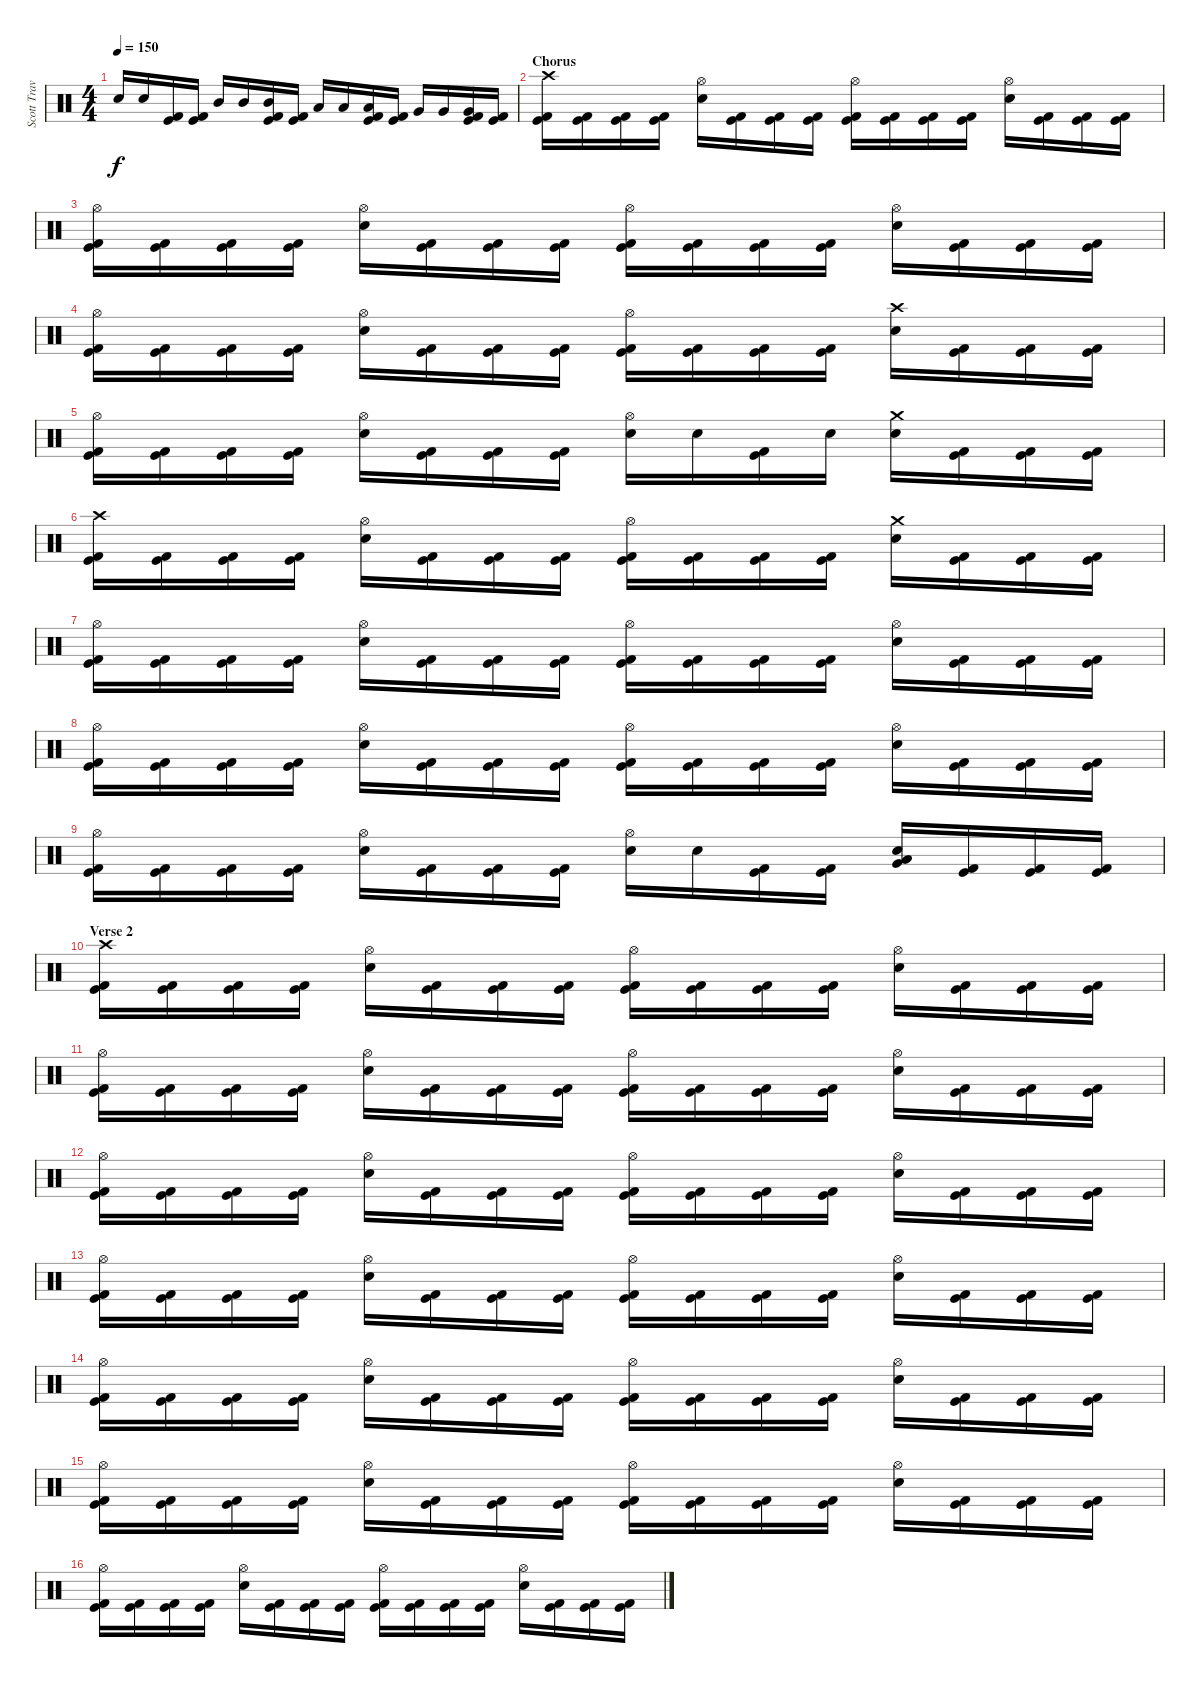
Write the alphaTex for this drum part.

\track ("Scott Travis" "Scott Trav") {instrument percussion}
\staff {score}
\articulation defaults
\ts (4 4)
\tempo 150
\clef neutral
\ks c "Electric Snare (hit)".16{dy f} "Electric Snare (hit)".16
("Kick (hit)" "Kick (hit) 2").16 ("Kick (hit)" "Kick (hit) 2").16 "Mid Tom (hit)".16 "Mid Tom (hit)".16 ("Mid Tom (hit)" "Kick (hit)" "Kick (hit) 2").16 ("Kick (hit)" "Kick (hit) 2").16 "Low Tom (hit)".16 "Low Tom (hit)".16 ("Low Tom (hit)" "Kick (hit)" "Kick (hit) 2").16 ("Kick (hit)" "Kick (hit) 2").16 "Very Low Tom (hit)".16 "Very Low Tom (hit)".16 ("Very Low Tom (hit)" "Kick (hit)" "Kick (hit) 2").16 ("Kick (hit)" "Kick (hit) 2").16 |
\section ("" "Chorus")
("Crash high (hit)" "Kick (hit)" "Kick (hit) 2").16 ("Kick (hit)" "Kick (hit) 2").16 ("Kick (hit)" "Kick (hit) 2").16 ("Kick (hit)" "Kick (hit) 2").16 ("Hi-Hat (open)" "Electric Snare (hit)").16 ("Kick (hit)" "Kick (hit) 2").16 ("Kick (hit)" "Kick (hit) 2").16 ("Kick (hit)" "Kick (hit) 2").16 ("Hi-Hat (open)" "Kick (hit)" "Kick (hit) 2").16 ("Kick (hit)" "Kick (hit) 2").16 ("Kick (hit)" "Kick (hit) 2").16 ("Kick (hit)" "Kick (hit) 2").16 ("Hi-Hat (open)" "Electric Snare (hit)").16 ("Kick (hit)" "Kick (hit) 2").16 ("Kick (hit)" "Kick (hit) 2").16 ("Kick (hit)" "Kick (hit) 2").16 |
("Hi-Hat (open)" "Kick (hit)" "Kick (hit) 2").16 ("Kick (hit)" "Kick (hit) 2").16 ("Kick (hit)" "Kick (hit) 2").16 ("Kick (hit)" "Kick (hit) 2").16 ("Hi-Hat (open)" "Electric Snare (hit)").16 ("Kick (hit)" "Kick (hit) 2").16 ("Kick (hit)" "Kick (hit) 2").16 ("Kick (hit)" "Kick (hit) 2").16 ("Hi-Hat (open)" "Kick (hit)" "Kick (hit) 2").16 ("Kick (hit)" "Kick (hit) 2").16 ("Kick (hit)" "Kick (hit) 2").16 ("Kick (hit)" "Kick (hit) 2").16 ("Hi-Hat (open)" "Electric Snare (hit)").16 ("Kick (hit)" "Kick (hit) 2").16 ("Kick (hit)" "Kick (hit) 2").16 ("Kick (hit)" "Kick (hit) 2").16 |
("Hi-Hat (open)" "Kick (hit)" "Kick (hit) 2").16 ("Kick (hit)" "Kick (hit) 2").16 ("Kick (hit)" "Kick (hit) 2").16 ("Kick (hit)" "Kick (hit) 2").16 ("Hi-Hat (open)" "Electric Snare (hit)").16 ("Kick (hit)" "Kick (hit) 2").16 ("Kick (hit)" "Kick (hit) 2").16 ("Kick (hit)" "Kick (hit) 2").16 ("Hi-Hat (open)" "Kick (hit)" "Kick (hit) 2").16 ("Kick (hit)" "Kick (hit) 2").16 ("Kick (hit)" "Kick (hit) 2").16 ("Kick (hit)" "Kick (hit) 2").16 ("Crash high (hit)" "Electric Snare (hit)").16 ("Kick (hit)" "Kick (hit) 2").16 ("Kick (hit)" "Kick (hit) 2").16 ("Kick (hit)" "Kick (hit) 2").16 |
("Hi-Hat (open)" "Kick (hit)" "Kick (hit) 2").16 ("Kick (hit)" "Kick (hit) 2").16 ("Kick (hit)" "Kick (hit) 2").16 ("Kick (hit)" "Kick (hit) 2").16 ("Hi-Hat (open)" "Electric Snare (hit)").16 ("Kick (hit)" "Kick (hit) 2").16 ("Kick (hit)" "Kick (hit) 2").16 ("Kick (hit)" "Kick (hit) 2").16 ("Hi-Hat (open)" "Electric Snare (hit)").16 "Electric Snare (hit)".16 ("Kick (hit)" "Kick (hit) 2").16 "Electric Snare (hit)".16 ("Crash medium (hit)" "Electric Snare (hit)").16 ("Kick (hit)" "Kick (hit) 2").16 ("Kick (hit)" "Kick (hit) 2").16 ("Kick (hit)" "Kick (hit) 2").16 |
("Crash high (hit)" "Kick (hit)" "Kick (hit) 2").16 ("Kick (hit)" "Kick (hit) 2").16 ("Kick (hit)" "Kick (hit) 2").16 ("Kick (hit)" "Kick (hit) 2").16 ("Hi-Hat (open)" "Electric Snare (hit)").16 ("Kick (hit)" "Kick (hit) 2").16 ("Kick (hit)" "Kick (hit) 2").16 ("Kick (hit)" "Kick (hit) 2").16 ("Hi-Hat (open)" "Kick (hit)" "Kick (hit) 2").16 ("Kick (hit)" "Kick (hit) 2").16 ("Kick (hit)" "Kick (hit) 2").16 ("Kick (hit)" "Kick (hit) 2").16 ("Crash medium (hit)" "Electric Snare (hit)").16 ("Kick (hit)" "Kick (hit) 2").16 ("Kick (hit)" "Kick (hit) 2").16 ("Kick (hit)" "Kick (hit) 2").16 |
("Hi-Hat (open)" "Kick (hit)" "Kick (hit) 2").16 ("Kick (hit)" "Kick (hit) 2").16 ("Kick (hit)" "Kick (hit) 2").16 ("Kick (hit)" "Kick (hit) 2").16 ("Hi-Hat (open)" "Electric Snare (hit)").16 ("Kick (hit)" "Kick (hit) 2").16 ("Kick (hit)" "Kick (hit) 2").16 ("Kick (hit)" "Kick (hit) 2").16 ("Hi-Hat (open)" "Kick (hit)" "Kick (hit) 2").16 ("Kick (hit)" "Kick (hit) 2").16 ("Kick (hit)" "Kick (hit) 2").16 ("Kick (hit)" "Kick (hit) 2").16 ("Hi-Hat (open)" "Electric Snare (hit)").16 ("Kick (hit)" "Kick (hit) 2").16 ("Kick (hit)" "Kick (hit) 2").16 ("Kick (hit)" "Kick (hit) 2").16 |
("Hi-Hat (open)" "Kick (hit)" "Kick (hit) 2").16 ("Kick (hit)" "Kick (hit) 2").16 ("Kick (hit)" "Kick (hit) 2").16 ("Kick (hit)" "Kick (hit) 2").16 ("Hi-Hat (open)" "Electric Snare (hit)").16 ("Kick (hit)" "Kick (hit) 2").16 ("Kick (hit)" "Kick (hit) 2").16 ("Kick (hit)" "Kick (hit) 2").16 ("Hi-Hat (open)" "Kick (hit)" "Kick (hit) 2").16 ("Kick (hit)" "Kick (hit) 2").16 ("Kick (hit)" "Kick (hit) 2").16 ("Kick (hit)" "Kick (hit) 2").16 ("Hi-Hat (open)" "Electric Snare (hit)").16 ("Kick (hit)" "Kick (hit) 2").16 ("Kick (hit)" "Kick (hit) 2").16 ("Kick (hit)" "Kick (hit) 2").16 |
("Hi-Hat (open)" "Kick (hit)" "Kick (hit) 2").16 ("Kick (hit)" "Kick (hit) 2").16 ("Kick (hit)" "Kick (hit) 2").16 ("Kick (hit)" "Kick (hit) 2").16 ("Hi-Hat (open)" "Electric Snare (hit)").16 ("Kick (hit)" "Kick (hit) 2").16 ("Kick (hit)" "Kick (hit) 2").16 ("Kick (hit)" "Kick (hit) 2").16 ("Hi-Hat (open)" "Electric Snare (hit)").16 "Electric Snare (hit)".16 ("Kick (hit)" "Kick (hit) 2").16 ("Kick (hit)" "Kick (hit) 2").16 ("Low Tom (hit)" "Very Low Tom (hit)" "Electric Snare (hit)").16 ("Kick (hit)" "Kick (hit) 2").16 ("Kick (hit)" "Kick (hit) 2").16 ("Kick (hit)" "Kick (hit) 2").16 |
\section ("" "Verse 2")
("Crash high (hit)" "Kick (hit)" "Kick (hit) 2").16 ("Kick (hit)" "Kick (hit) 2").16 ("Kick (hit)" "Kick (hit) 2").16 ("Kick (hit)" "Kick (hit) 2").16 ("Hi-Hat (open)" "Electric Snare (hit)").16 ("Kick (hit)" "Kick (hit) 2").16 ("Kick (hit)" "Kick (hit) 2").16 ("Kick (hit)" "Kick (hit) 2").16 ("Hi-Hat (open)" "Kick (hit)" "Kick (hit) 2").16 ("Kick (hit)" "Kick (hit) 2").16 ("Kick (hit)" "Kick (hit) 2").16 ("Kick (hit)" "Kick (hit) 2").16 ("Hi-Hat (open)" "Electric Snare (hit)").16 ("Kick (hit)" "Kick (hit) 2").16 ("Kick (hit)" "Kick (hit) 2").16 ("Kick (hit)" "Kick (hit) 2").16 |
("Hi-Hat (open)" "Kick (hit)" "Kick (hit) 2").16 ("Kick (hit)" "Kick (hit) 2").16 ("Kick (hit)" "Kick (hit) 2").16 ("Kick (hit)" "Kick (hit) 2").16 ("Hi-Hat (open)" "Electric Snare (hit)").16 ("Kick (hit)" "Kick (hit) 2").16 ("Kick (hit)" "Kick (hit) 2").16 ("Kick (hit)" "Kick (hit) 2").16 ("Hi-Hat (open)" "Kick (hit)" "Kick (hit) 2").16 ("Kick (hit)" "Kick (hit) 2").16 ("Kick (hit)" "Kick (hit) 2").16 ("Kick (hit)" "Kick (hit) 2").16 ("Hi-Hat (open)" "Electric Snare (hit)").16 ("Kick (hit)" "Kick (hit) 2").16 ("Kick (hit)" "Kick (hit) 2").16 ("Kick (hit)" "Kick (hit) 2").16 |
("Hi-Hat (open)" "Kick (hit)" "Kick (hit) 2").16 ("Kick (hit)" "Kick (hit) 2").16 ("Kick (hit)" "Kick (hit) 2").16 ("Kick (hit)" "Kick (hit) 2").16 ("Hi-Hat (open)" "Electric Snare (hit)").16 ("Kick (hit)" "Kick (hit) 2").16 ("Kick (hit)" "Kick (hit) 2").16 ("Kick (hit)" "Kick (hit) 2").16 ("Hi-Hat (open)" "Kick (hit)" "Kick (hit) 2").16 ("Kick (hit)" "Kick (hit) 2").16 ("Kick (hit)" "Kick (hit) 2").16 ("Kick (hit)" "Kick (hit) 2").16 ("Hi-Hat (open)" "Electric Snare (hit)").16 ("Kick (hit)" "Kick (hit) 2").16 ("Kick (hit)" "Kick (hit) 2").16 ("Kick (hit)" "Kick (hit) 2").16 |
("Hi-Hat (open)" "Kick (hit)" "Kick (hit) 2").16 ("Kick (hit)" "Kick (hit) 2").16 ("Kick (hit)" "Kick (hit) 2").16 ("Kick (hit)" "Kick (hit) 2").16 ("Hi-Hat (open)" "Electric Snare (hit)").16 ("Kick (hit)" "Kick (hit) 2").16 ("Kick (hit)" "Kick (hit) 2").16 ("Kick (hit)" "Kick (hit) 2").16 ("Hi-Hat (open)" "Kick (hit)" "Kick (hit) 2").16 ("Kick (hit)" "Kick (hit) 2").16 ("Kick (hit)" "Kick (hit) 2").16 ("Kick (hit)" "Kick (hit) 2").16 ("Hi-Hat (open)" "Electric Snare (hit)").16 ("Kick (hit)" "Kick (hit) 2").16 ("Kick (hit)" "Kick (hit) 2").16 ("Kick (hit)" "Kick (hit) 2").16 |
("Hi-Hat (open)" "Kick (hit)" "Kick (hit) 2").16 ("Kick (hit)" "Kick (hit) 2").16 ("Kick (hit)" "Kick (hit) 2").16 ("Kick (hit)" "Kick (hit) 2").16 ("Hi-Hat (open)" "Electric Snare (hit)").16 ("Kick (hit)" "Kick (hit) 2").16 ("Kick (hit)" "Kick (hit) 2").16 ("Kick (hit)" "Kick (hit) 2").16 ("Hi-Hat (open)" "Kick (hit)" "Kick (hit) 2").16 ("Kick (hit)" "Kick (hit) 2").16 ("Kick (hit)" "Kick (hit) 2").16 ("Kick (hit)" "Kick (hit) 2").16 ("Hi-Hat (open)" "Electric Snare (hit)").16 ("Kick (hit)" "Kick (hit) 2").16 ("Kick (hit)" "Kick (hit) 2").16 ("Kick (hit)" "Kick (hit) 2").16 |
("Hi-Hat (open)" "Kick (hit)" "Kick (hit) 2").16 ("Kick (hit)" "Kick (hit) 2").16 ("Kick (hit)" "Kick (hit) 2").16 ("Kick (hit)" "Kick (hit) 2").16 ("Hi-Hat (open)" "Electric Snare (hit)").16 ("Kick (hit)" "Kick (hit) 2").16 ("Kick (hit)" "Kick (hit) 2").16 ("Kick (hit)" "Kick (hit) 2").16 ("Hi-Hat (open)" "Kick (hit)" "Kick (hit) 2").16 ("Kick (hit)" "Kick (hit) 2").16 ("Kick (hit)" "Kick (hit) 2").16 ("Kick (hit)" "Kick (hit) 2").16 ("Hi-Hat (open)" "Electric Snare (hit)").16 ("Kick (hit)" "Kick (hit) 2").16 ("Kick (hit)" "Kick (hit) 2").16 ("Kick (hit)" "Kick (hit) 2").16 |
("Hi-Hat (open)" "Kick (hit)" "Kick (hit) 2").16 ("Kick (hit)" "Kick (hit) 2").16 ("Kick (hit)" "Kick (hit) 2").16 ("Kick (hit)" "Kick (hit) 2").16 ("Hi-Hat (open)" "Electric Snare (hit)").16 ("Kick (hit)" "Kick (hit) 2").16 ("Kick (hit)" "Kick (hit) 2").16 ("Kick (hit)" "Kick (hit) 2").16 ("Hi-Hat (open)" "Kick (hit)" "Kick (hit) 2").16 ("Kick (hit)" "Kick (hit) 2").16 ("Kick (hit)" "Kick (hit) 2").16 ("Kick (hit)" "Kick (hit) 2").16 ("Hi-Hat (open)" "Electric Snare (hit)").16 ("Kick (hit)" "Kick (hit) 2").16 ("Kick (hit)" "Kick (hit) 2").16 ("Kick (hit)" "Kick (hit) 2").16
